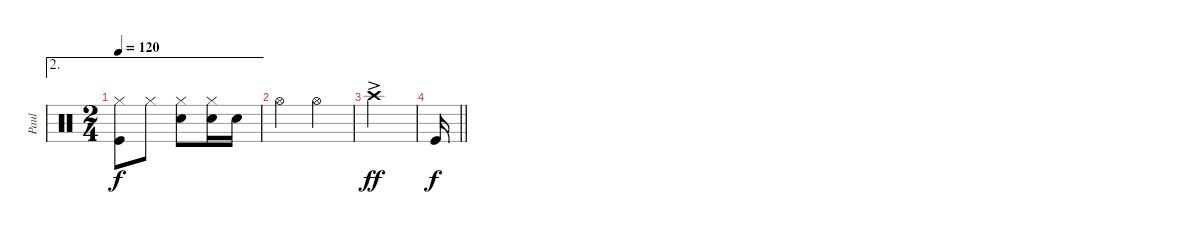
\track ("Paul" "Paul") {instrument percussion}
\staff {score}
\articulation defaults
\ae 2
\ts (2 4)
\tempo 120
\clef neutral
\ks c
("Hi-Hat (closed)" "Kick (hit)").8{dy f} "Hi-Hat (closed)".8 ("Hi-Hat (closed)" "Snare (hit) 2").8 ("Hi-Hat (closed)" "Snare (hit) 2").16 "Snare (hit) 2".16 |
"Hi-Hat (open)".4 "Hi-Hat (open)".4 |
"Crash high (hit)"{ac}.2{dy ff} |
\barLineRight lightlight "Kick (hit)".16{dy f}
